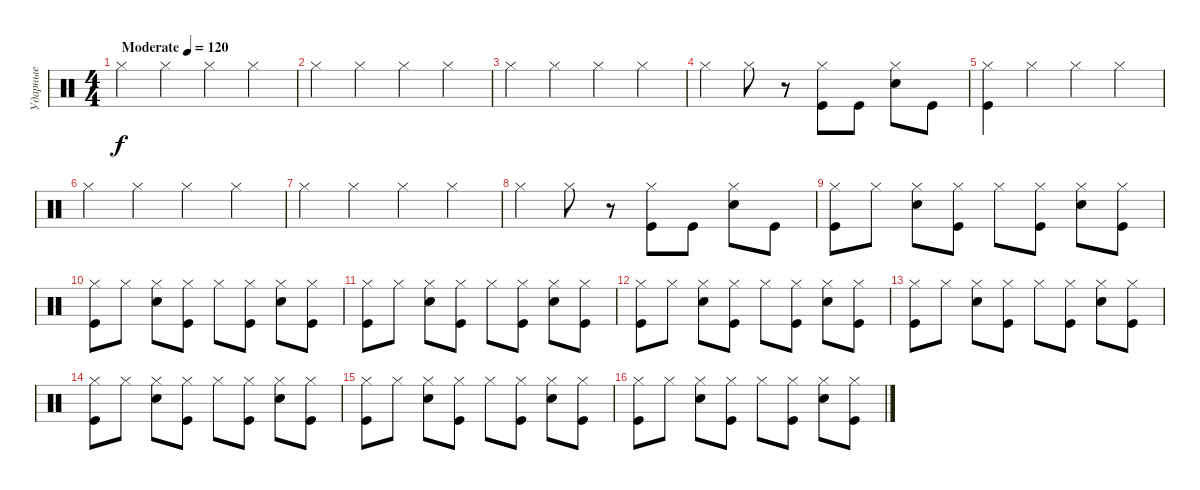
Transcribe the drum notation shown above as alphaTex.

\track ("Ударные" "Ударные") {instrument percussion}
\staff {score}
\articulation defaults
\ts (4 4)
\tempo (120 "Moderate")
\clef neutral
\ks c "Hi-Hat (closed)".4{dy f} "Hi-Hat (closed)".4 "Hi-Hat (closed)".4 "Hi-Hat (closed)".4
|
"Hi-Hat (closed)".4 "Hi-Hat (closed)".4 "Hi-Hat (closed)".4 "Hi-Hat (closed)".4 |
"Hi-Hat (closed)".4 "Hi-Hat (closed)".4 "Hi-Hat (closed)".4 "Hi-Hat (closed)".4 |
"Hi-Hat (closed)".4 "Hi-Hat (closed)".8 r.8 ("Kick (hit)" "Hi-Hat (closed)").8 "Kick (hit)".8 ("Snare (hit) 2" "Hi-Hat (closed)").8 "Kick (hit)".8 |
("Kick (hit)" "Hi-Hat (closed)").4 "Hi-Hat (closed)".4 "Hi-Hat (closed)".4 "Hi-Hat (closed)".4 |
"Hi-Hat (closed)".4 "Hi-Hat (closed)".4 "Hi-Hat (closed)".4 "Hi-Hat (closed)".4 |
"Hi-Hat (closed)".4 "Hi-Hat (closed)".4 "Hi-Hat (closed)".4 "Hi-Hat (closed)".4 |
"Hi-Hat (closed)".4 "Hi-Hat (closed)".8 r.8 ("Kick (hit)" "Hi-Hat (closed)").8 "Kick (hit)".8 ("Snare (hit) 2" "Hi-Hat (closed)").8 "Kick (hit)".8 |
("Kick (hit)" "Hi-Hat (closed)").8 "Hi-Hat (closed)".8 ("Snare (hit) 2" "Hi-Hat (closed)").8 ("Kick (hit)" "Hi-Hat (closed)").8 "Hi-Hat (closed)".8 ("Kick (hit)" "Hi-Hat (closed)").8 ("Snare (hit) 2" "Hi-Hat (closed)").8 ("Kick (hit)" "Hi-Hat (closed)").8 |
("Kick (hit)" "Hi-Hat (closed)").8 "Hi-Hat (closed)".8 ("Snare (hit) 2" "Hi-Hat (closed)").8 ("Kick (hit)" "Hi-Hat (closed)").8 "Hi-Hat (closed)".8 ("Kick (hit)" "Hi-Hat (closed)").8 ("Snare (hit) 2" "Hi-Hat (closed)").8 ("Kick (hit)" "Hi-Hat (closed)").8 |
("Kick (hit)" "Hi-Hat (closed)").8 "Hi-Hat (closed)".8 ("Snare (hit) 2" "Hi-Hat (closed)").8 ("Kick (hit)" "Hi-Hat (closed)").8 "Hi-Hat (closed)".8 ("Kick (hit)" "Hi-Hat (closed)").8 ("Snare (hit) 2" "Hi-Hat (closed)").8 ("Kick (hit)" "Hi-Hat (closed)").8 |
("Kick (hit)" "Hi-Hat (closed)").8 "Hi-Hat (closed)".8 ("Snare (hit) 2" "Hi-Hat (closed)").8 ("Kick (hit)" "Hi-Hat (closed)").8 "Hi-Hat (closed)".8 ("Kick (hit)" "Hi-Hat (closed)").8 ("Snare (hit) 2" "Hi-Hat (closed)").8 ("Kick (hit)" "Hi-Hat (closed)").8 |
("Kick (hit)" "Hi-Hat (closed)").8 "Hi-Hat (closed)".8 ("Snare (hit) 2" "Hi-Hat (closed)").8 ("Kick (hit)" "Hi-Hat (closed)").8 "Hi-Hat (closed)".8 ("Kick (hit)" "Hi-Hat (closed)").8 ("Snare (hit) 2" "Hi-Hat (closed)").8 ("Kick (hit)" "Hi-Hat (closed)").8 |
("Kick (hit)" "Hi-Hat (closed)").8 "Hi-Hat (closed)".8 ("Snare (hit) 2" "Hi-Hat (closed)").8 ("Kick (hit)" "Hi-Hat (closed)").8 "Hi-Hat (closed)".8 ("Kick (hit)" "Hi-Hat (closed)").8 ("Snare (hit) 2" "Hi-Hat (closed)").8 ("Kick (hit)" "Hi-Hat (closed)").8 |
("Kick (hit)" "Hi-Hat (closed)").8 "Hi-Hat (closed)".8 ("Snare (hit) 2" "Hi-Hat (closed)").8 ("Kick (hit)" "Hi-Hat (closed)").8 "Hi-Hat (closed)".8 ("Kick (hit)" "Hi-Hat (closed)").8 ("Snare (hit) 2" "Hi-Hat (closed)").8 ("Kick (hit)" "Hi-Hat (closed)").8 |
("Kick (hit)" "Hi-Hat (closed)").8 "Hi-Hat (closed)".8 ("Snare (hit) 2" "Hi-Hat (closed)").8 ("Kick (hit)" "Hi-Hat (closed)").8 "Hi-Hat (closed)".8 ("Kick (hit)" "Hi-Hat (closed)").8 ("Snare (hit) 2" "Hi-Hat (closed)").8 ("Kick (hit)" "Hi-Hat (closed)").8
